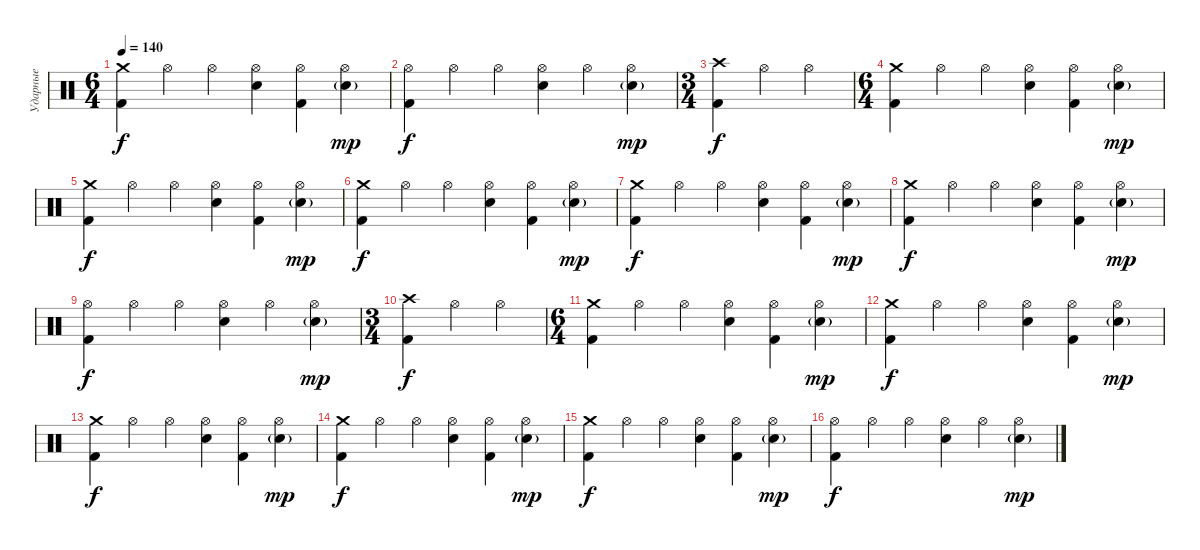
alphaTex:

\track ("Ударные" "Ударные") {instrument percussion}
\staff {score}
\articulation defaults
\ts (6 4)
\tempo 140
\clef neutral
\ks c
("Crash medium (hit)" "Kick (hit) 2").4{dy f} "Hi-Hat (open)".4 "Hi-Hat (open)".4 ("Hi-Hat (open)" "Electric Snare (hit)").4 ("Hi-Hat (open)" "Kick (hit) 2").4 ("Hi-Hat (open)" "Electric Snare (hit)"{g}).4{dy mp} |
("Hi-Hat (open)" "Kick (hit) 2").4{dy f} "Hi-Hat (open)".4 "Hi-Hat (open)".4 ("Hi-Hat (open)" "Electric Snare (hit)").4 "Hi-Hat (open)".4 ("Hi-Hat (open)" "Electric Snare (hit)"{g}).4{dy mp} |
\ts (3 4)
("Crash high (hit)" "Kick (hit) 2").4{dy f} "Hi-Hat (open)".4 "Hi-Hat (open)".4 |
\ts (6 4)
("Crash medium (hit)" "Kick (hit) 2").4 "Hi-Hat (open)".4 "Hi-Hat (open)".4 ("Hi-Hat (open)" "Electric Snare (hit)").4 ("Hi-Hat (open)" "Kick (hit) 2").4 ("Hi-Hat (open)" "Electric Snare (hit)"{g}).4{dy mp} |
("Crash medium (hit)" "Kick (hit) 2").4{dy f} "Hi-Hat (open)".4 "Hi-Hat (open)".4 ("Hi-Hat (open)" "Electric Snare (hit)").4 ("Hi-Hat (open)" "Kick (hit) 2").4 ("Hi-Hat (open)" "Electric Snare (hit)"{g}).4{dy mp} |
("Crash medium (hit)" "Kick (hit) 2").4{dy f} "Hi-Hat (open)".4 "Hi-Hat (open)".4 ("Hi-Hat (open)" "Electric Snare (hit)").4 ("Hi-Hat (open)" "Kick (hit) 2").4 ("Hi-Hat (open)" "Electric Snare (hit)"{g}).4{dy mp} |
("Crash medium (hit)" "Kick (hit) 2").4{dy f} "Hi-Hat (open)".4 "Hi-Hat (open)".4 ("Hi-Hat (open)" "Electric Snare (hit)").4 ("Hi-Hat (open)" "Kick (hit) 2").4 ("Hi-Hat (open)" "Electric Snare (hit)"{g}).4{dy mp} |
("Crash medium (hit)" "Kick (hit) 2").4{dy f} "Hi-Hat (open)".4 "Hi-Hat (open)".4 ("Hi-Hat (open)" "Electric Snare (hit)").4 ("Hi-Hat (open)" "Kick (hit) 2").4 ("Hi-Hat (open)" "Electric Snare (hit)"{g}).4{dy mp} |
("Hi-Hat (open)" "Kick (hit) 2").4{dy f} "Hi-Hat (open)".4 "Hi-Hat (open)".4 ("Hi-Hat (open)" "Electric Snare (hit)").4 "Hi-Hat (open)".4 ("Hi-Hat (open)" "Electric Snare (hit)"{g}).4{dy mp} |
\ts (3 4)
("Crash high (hit)" "Kick (hit) 2").4{dy f} "Hi-Hat (open)".4 "Hi-Hat (open)".4 |
\ts (6 4)
("Crash medium (hit)" "Kick (hit) 2").4 "Hi-Hat (open)".4 "Hi-Hat (open)".4 ("Hi-Hat (open)" "Electric Snare (hit)").4 ("Hi-Hat (open)" "Kick (hit) 2").4 ("Hi-Hat (open)" "Electric Snare (hit)"{g}).4{dy mp} |
("Crash medium (hit)" "Kick (hit) 2").4{dy f} "Hi-Hat (open)".4 "Hi-Hat (open)".4 ("Hi-Hat (open)" "Electric Snare (hit)").4 ("Hi-Hat (open)" "Kick (hit) 2").4 ("Hi-Hat (open)" "Electric Snare (hit)"{g}).4{dy mp} |
("Crash medium (hit)" "Kick (hit) 2").4{dy f} "Hi-Hat (open)".4 "Hi-Hat (open)".4 ("Hi-Hat (open)" "Electric Snare (hit)").4 ("Hi-Hat (open)" "Kick (hit) 2").4 ("Hi-Hat (open)" "Electric Snare (hit)"{g}).4{dy mp} |
("Crash medium (hit)" "Kick (hit) 2").4{dy f} "Hi-Hat (open)".4 "Hi-Hat (open)".4 ("Hi-Hat (open)" "Electric Snare (hit)").4 ("Hi-Hat (open)" "Kick (hit) 2").4 ("Hi-Hat (open)" "Electric Snare (hit)"{g}).4{dy mp} |
("Crash medium (hit)" "Kick (hit) 2").4{dy f} "Hi-Hat (open)".4 "Hi-Hat (open)".4 ("Hi-Hat (open)" "Electric Snare (hit)").4 ("Hi-Hat (open)" "Kick (hit) 2").4 ("Hi-Hat (open)" "Electric Snare (hit)"{g}).4{dy mp} |
("Hi-Hat (open)" "Kick (hit) 2").4{dy f} "Hi-Hat (open)".4 "Hi-Hat (open)".4 ("Hi-Hat (open)" "Electric Snare (hit)").4 "Hi-Hat (open)".4 ("Hi-Hat (open)" "Electric Snare (hit)"{g}).4{dy mp}
